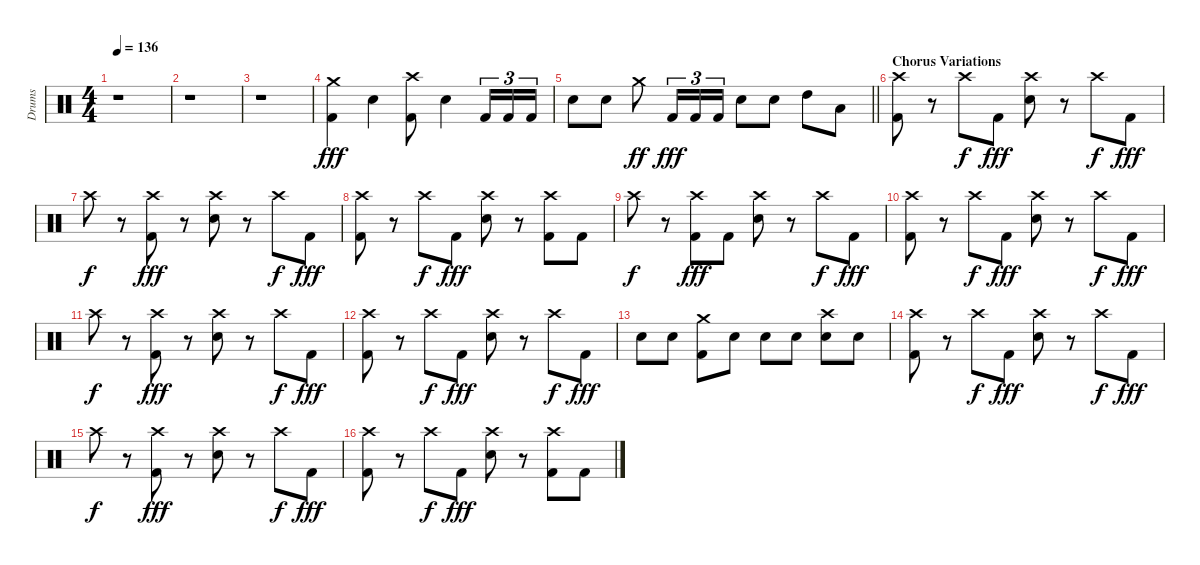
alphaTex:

\track ("Drums" "Drums") {instrument percussion}
\staff {score}
\articulation defaults
\ts (4 4)
\tempo 136
\clef neutral
\ks c
r.1{dy fff} |
r.1 |
r.1 |
("Crash medium (hit)" "Kick (hit) 2").4 "Electric Snare (hit)".4 ("Crash high (hit)" "Kick (hit) 2").8 "Electric Snare (hit)".4 "Kick (hit) 2".16{tu (3 2)} "Kick (hit) 2".16{tu (3 2)} "Kick (hit) 2".16{tu (3 2)} |
\barLineRight lightlight "Electric Snare (hit)".8 "Electric Snare (hit)".8 "Crash medium (hit)".8{dy ff} "Kick (hit) 2".16{tu (3 2) dy fff} "Kick (hit) 2".16{tu (3 2)} "Kick (hit) 2".16{tu (3 2)} "Electric Snare (hit)".8 "Electric Snare (hit)".8 "High Tom (hit)".8 "Low Tom (hit)".8
|
\section ("" "Chorus Variations")
("Crash high (hit)" "Kick (hit) 2").8 r.8 "Crash high (hit)".8{dy f} "Kick (hit) 2".8{dy fff} ("Crash high (hit)" "Electric Snare (hit)").8 r.8 "Crash high (hit)".8{dy f} "Kick (hit) 2".8{dy fff} |
"Crash high (hit)".8{dy f} r.8 ("Crash high (hit)" "Kick (hit) 2").8{dy fff} r.8 ("Crash high (hit)" "Electric Snare (hit)").8 r.8 "Crash high (hit)".8{dy f} "Kick (hit) 2".8{dy fff} |
("Crash high (hit)" "Kick (hit) 2").8 r.8 "Crash high (hit)".8{dy f} "Kick (hit) 2".8{dy fff} ("Crash high (hit)" "Electric Snare (hit)").8 r.8 ("Crash high (hit)" "Kick (hit) 2").8 "Kick (hit) 2".8 |
"Crash high (hit)".8{dy f} r.8 ("Crash high (hit)" "Kick (hit) 2").8{dy fff} "Kick (hit) 2".8 ("Crash high (hit)" "Electric Snare (hit)").8 r.8 "Crash high (hit)".8{dy f} "Kick (hit) 2".8{dy fff} |
("Crash high (hit)" "Kick (hit) 2").8 r.8 "Crash high (hit)".8{dy f} "Kick (hit) 2".8{dy fff} ("Crash high (hit)" "Electric Snare (hit)").8 r.8 "Crash high (hit)".8{dy f} "Kick (hit) 2".8{dy fff} |
"Crash high (hit)".8{dy f} r.8 ("Crash high (hit)" "Kick (hit) 2").8{dy fff} r.8 ("Crash high (hit)" "Electric Snare (hit)").8 r.8 "Crash high (hit)".8{dy f} "Kick (hit) 2".8{dy fff} |
("Crash high (hit)" "Kick (hit) 2").8 r.8 "Crash high (hit)".8{dy f} "Kick (hit) 2".8{dy fff} ("Crash high (hit)" "Electric Snare (hit)").8 r.8 "Crash high (hit)".8{dy f} "Kick (hit) 2".8{dy fff} |
"Electric Snare (hit)".8 "Electric Snare (hit)".8 ("Crash medium (hit)" "Kick (hit) 2").8 "Electric Snare (hit)".8 "Electric Snare (hit)".8 "Electric Snare (hit)".8 ("Crash high (hit)" "Electric Snare (hit)").8 "Electric Snare (hit)".8 |
("Crash high (hit)" "Kick (hit) 2").8 r.8 "Crash high (hit)".8{dy f} "Kick (hit) 2".8{dy fff} ("Crash high (hit)" "Electric Snare (hit)").8 r.8 "Crash high (hit)".8{dy f} "Kick (hit) 2".8{dy fff} |
"Crash high (hit)".8{dy f} r.8 ("Crash high (hit)" "Kick (hit) 2").8{dy fff} r.8 ("Crash high (hit)" "Electric Snare (hit)").8 r.8 "Crash high (hit)".8{dy f} "Kick (hit) 2".8{dy fff} |
("Crash high (hit)" "Kick (hit) 2").8 r.8 "Crash high (hit)".8{dy f} "Kick (hit) 2".8{dy fff} ("Crash high (hit)" "Electric Snare (hit)").8 r.8 ("Crash high (hit)" "Kick (hit) 2").8 "Kick (hit) 2".8
